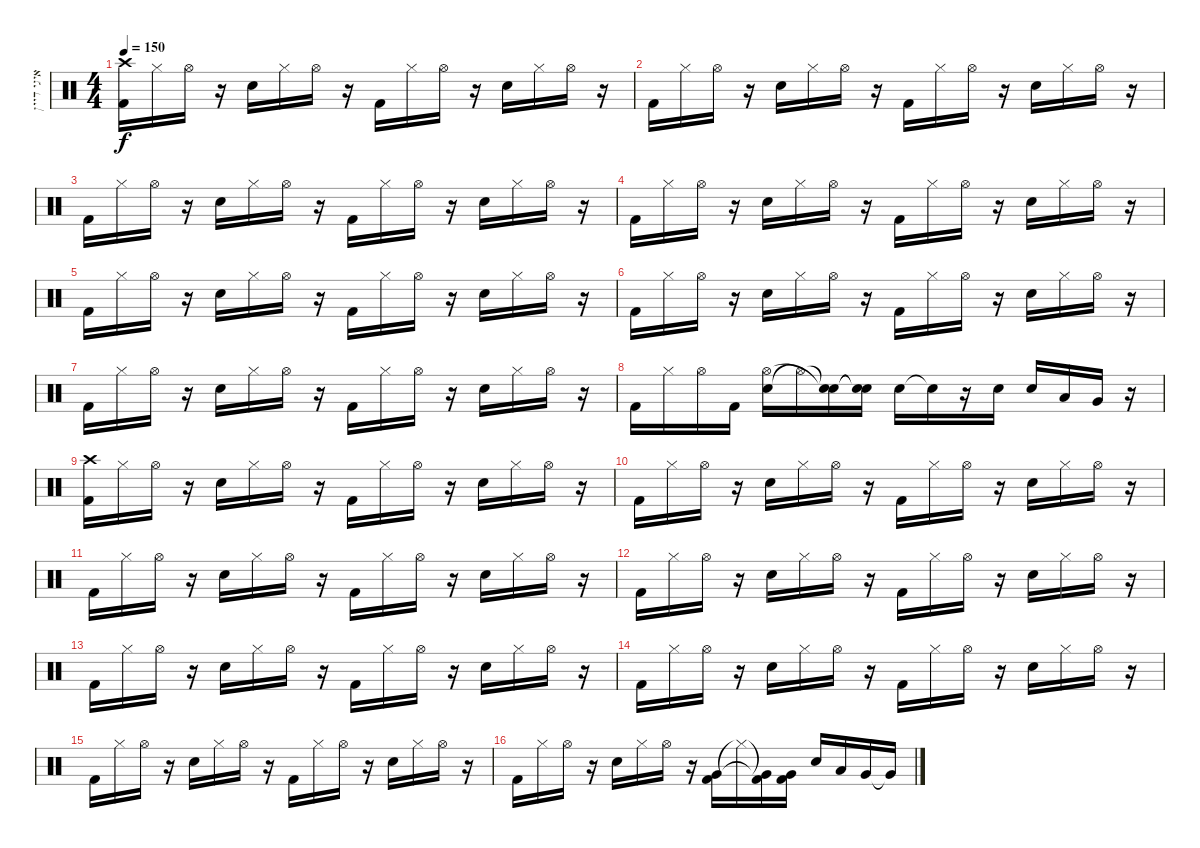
\track ("איגי דיין" "איגי דיין") {instrument percussion}
\staff {score}
\articulation defaults
\ts (4 4)
\tempo 150
\clef neutral
\ks c
("Crash high (hit)" "Kick (hit) 2").16{dy f} "Hi-Hat (closed)".16 "Hi-Hat (open)".16 r.16 "Electric Snare (hit)".16 "Hi-Hat (closed)".16 "Hi-Hat (open)".16 r.16 "Kick (hit) 2".16 "Hi-Hat (closed)".16 "Hi-Hat (open)".16 r.16 "Electric Snare (hit)".16 "Hi-Hat (closed)".16 "Hi-Hat (open)".16 r.16 |
"Kick (hit) 2".16 "Hi-Hat (closed)".16 "Hi-Hat (open)".16 r.16 "Electric Snare (hit)".16 "Hi-Hat (closed)".16 "Hi-Hat (open)".16 r.16 "Kick (hit) 2".16 "Hi-Hat (closed)".16 "Hi-Hat (open)".16 r.16 "Electric Snare (hit)".16 "Hi-Hat (closed)".16 "Hi-Hat (open)".16 r.16 |
"Kick (hit) 2".16 "Hi-Hat (closed)".16 "Hi-Hat (open)".16 r.16 "Electric Snare (hit)".16 "Hi-Hat (closed)".16 "Hi-Hat (open)".16 r.16 "Kick (hit) 2".16 "Hi-Hat (closed)".16 "Hi-Hat (open)".16 r.16 "Electric Snare (hit)".16 "Hi-Hat (closed)".16 "Hi-Hat (open)".16 r.16 |
"Kick (hit) 2".16 "Hi-Hat (closed)".16 "Hi-Hat (open)".16 r.16 "Electric Snare (hit)".16 "Hi-Hat (closed)".16 "Hi-Hat (open)".16 r.16 "Kick (hit) 2".16 "Hi-Hat (closed)".16 "Hi-Hat (open)".16 r.16 "Electric Snare (hit)".16 "Hi-Hat (closed)".16 "Hi-Hat (open)".16 r.16 |
"Kick (hit) 2".16 "Hi-Hat (closed)".16 "Hi-Hat (open)".16 r.16 "Electric Snare (hit)".16 "Hi-Hat (closed)".16 "Hi-Hat (open)".16 r.16 "Kick (hit) 2".16 "Hi-Hat (closed)".16 "Hi-Hat (open)".16 r.16 "Electric Snare (hit)".16 "Hi-Hat (closed)".16 "Hi-Hat (open)".16 r.16 |
"Kick (hit) 2".16 "Hi-Hat (closed)".16 "Hi-Hat (open)".16 r.16 "Electric Snare (hit)".16 "Hi-Hat (closed)".16 "Hi-Hat (open)".16 r.16 "Kick (hit) 2".16 "Hi-Hat (closed)".16 "Hi-Hat (open)".16 r.16 "Electric Snare (hit)".16 "Hi-Hat (closed)".16 "Hi-Hat (open)".16 r.16 |
"Kick (hit) 2".16 "Hi-Hat (closed)".16 "Hi-Hat (open)".16 r.16 "Electric Snare (hit)".16 "Hi-Hat (closed)".16 "Hi-Hat (open)".16 r.16 "Kick (hit) 2".16 "Hi-Hat (closed)".16 "Hi-Hat (open)".16 r.16 "Electric Snare (hit)".16 "Hi-Hat (closed)".16 "Hi-Hat (open)".16 r.16 |
"Kick (hit) 2".16 "Hi-Hat (closed)".16 "Hi-Hat (open)".16 "Kick (hit) 2".16 ("Electric Snare (hit)" "Hi-Hat (open)").16 "Hi-Hat (open)"{t}.16 ("Snare (hit)"{t} "Snare (hit)"{t}).16 ("Electric Snare (hit)"{t} "Snare (hit)"{t}).16 "Electric Snare (hit)".16 "Electric Snare (hit)"{t}.16 r.16 "Electric Snare (hit)".16 "Electric Snare (hit)".16 "Low Tom (hit)".16 "Very Low Tom (hit)".16 r.16 |
("Crash high (hit)" "Kick (hit) 2").16 "Hi-Hat (closed)".16 "Hi-Hat (open)".16 r.16 "Electric Snare (hit)".16 "Hi-Hat (closed)".16 "Hi-Hat (open)".16 r.16 "Kick (hit) 2".16 "Hi-Hat (closed)".16 "Hi-Hat (open)".16 r.16 "Electric Snare (hit)".16 "Hi-Hat (closed)".16 "Hi-Hat (open)".16 r.16 |
"Kick (hit) 2".16 "Hi-Hat (closed)".16 "Hi-Hat (open)".16 r.16 "Electric Snare (hit)".16 "Hi-Hat (closed)".16 "Hi-Hat (open)".16 r.16 "Kick (hit) 2".16 "Hi-Hat (closed)".16 "Hi-Hat (open)".16 r.16 "Electric Snare (hit)".16 "Hi-Hat (closed)".16 "Hi-Hat (open)".16 r.16 |
"Kick (hit) 2".16 "Hi-Hat (closed)".16 "Hi-Hat (open)".16 r.16 "Electric Snare (hit)".16 "Hi-Hat (closed)".16 "Hi-Hat (open)".16 r.16 "Kick (hit) 2".16 "Hi-Hat (closed)".16 "Hi-Hat (open)".16 r.16 "Electric Snare (hit)".16 "Hi-Hat (closed)".16 "Hi-Hat (open)".16 r.16 |
"Kick (hit) 2".16 "Hi-Hat (closed)".16 "Hi-Hat (open)".16 r.16 "Electric Snare (hit)".16 "Hi-Hat (closed)".16 "Hi-Hat (open)".16 r.16 "Kick (hit) 2".16 "Hi-Hat (closed)".16 "Hi-Hat (open)".16 r.16 "Electric Snare (hit)".16 "Hi-Hat (closed)".16 "Hi-Hat (open)".16 r.16 |
"Kick (hit) 2".16 "Hi-Hat (closed)".16 "Hi-Hat (open)".16 r.16 "Electric Snare (hit)".16 "Hi-Hat (closed)".16 "Hi-Hat (open)".16 r.16 "Kick (hit) 2".16 "Hi-Hat (closed)".16 "Hi-Hat (open)".16 r.16 "Electric Snare (hit)".16 "Hi-Hat (closed)".16 "Hi-Hat (open)".16 r.16 |
"Kick (hit) 2".16 "Hi-Hat (closed)".16 "Hi-Hat (open)".16 r.16 "Electric Snare (hit)".16 "Hi-Hat (closed)".16 "Hi-Hat (open)".16 r.16 "Kick (hit) 2".16 "Hi-Hat (closed)".16 "Hi-Hat (open)".16 r.16 "Electric Snare (hit)".16 "Hi-Hat (closed)".16 "Hi-Hat (open)".16 r.16 |
"Kick (hit) 2".16 "Hi-Hat (closed)".16 "Hi-Hat (open)".16 r.16 "Electric Snare (hit)".16 "Hi-Hat (closed)".16 "Hi-Hat (open)".16 r.16 "Kick (hit) 2".16 "Hi-Hat (closed)".16 "Hi-Hat (open)".16 r.16 "Electric Snare (hit)".16 "Hi-Hat (closed)".16 "Hi-Hat (open)".16 r.16 |
"Kick (hit) 2".16 "Hi-Hat (closed)".16 "Hi-Hat (open)".16 r.16 "Electric Snare (hit)".16 "Hi-Hat (closed)".16 "Hi-Hat (open)".16 r.16 ("Kick (hit) 2" "Very Low Tom (hit)").16 "Hi-Hat (closed)"{t}.16 ("Kick (hit) 2"{t} "Very Low Tom (hit)"{t}).16 ("Kick (hit) 2" "Very Low Tom (hit)").16 "Electric Snare (hit)".16 "Low Tom (hit)".16 "Very Low Tom (hit)".16 "Very Low Tom (hit)"{t}.16
